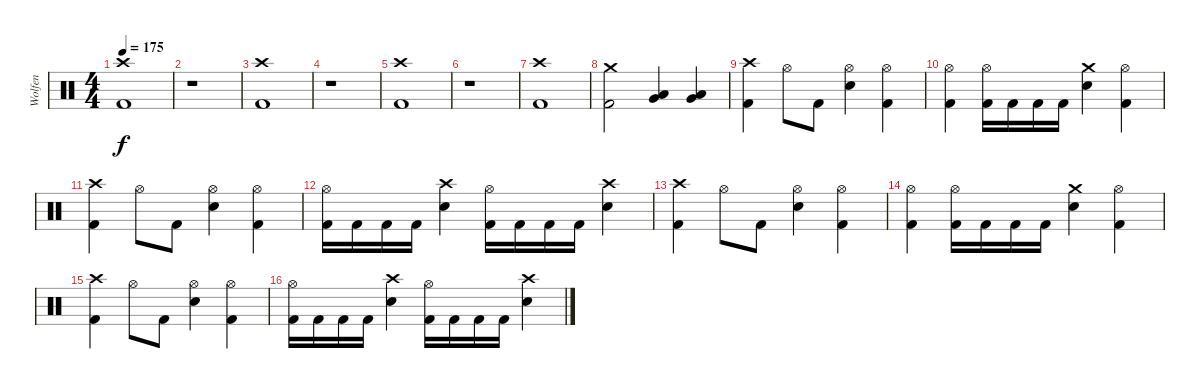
\track ("Wolfen" "Wolfen") {instrument percussion}
\staff {score}
\articulation defaults
\ts (4 4)
\tempo 175
\clef neutral
\ks c
("Crash high (hit)" "Kick (hit) 2").1{dy f} |
r.1 |
("Crash high (hit)" "Kick (hit) 2").1 |
r.1 |
("Crash high (hit)" "Kick (hit) 2").1 |
r.1 |
("Crash high (hit)" "Kick (hit) 2").1 |
("Crash medium (hit)" "Kick (hit) 2").2 ("Low Tom (hit)" "Very Low Tom (hit)").4 ("Low Tom (hit)" "Very Low Tom (hit)").4 |
("Crash high (hit)" "Kick (hit) 2").4 "Hi-Hat (open)".8 "Kick (hit) 2".8 ("Hi-Hat (open)" "Electric Snare (hit)").4 ("Hi-Hat (open)" "Kick (hit) 2").4 |
("Hi-Hat (open)" "Kick (hit) 2").4 ("Hi-Hat (open)" "Kick (hit) 2").16 "Kick (hit) 2".16 "Kick (hit) 2".16 "Kick (hit) 2".16 ("Crash medium (hit)" "Electric Snare (hit)").4 ("Hi-Hat (open)" "Kick (hit) 2").4 |
("Crash high (hit)" "Kick (hit) 2").4 "Hi-Hat (open)".8 "Kick (hit) 2".8 ("Hi-Hat (open)" "Electric Snare (hit)").4 ("Hi-Hat (open)" "Kick (hit) 2").4 |
("Hi-Hat (open)" "Kick (hit) 2").16 "Kick (hit) 2".16 "Kick (hit) 2".16 "Kick (hit) 2".16 ("Crash high (hit)" "Electric Snare (hit)").4 ("Hi-Hat (open)" "Kick (hit) 2").16 "Kick (hit) 2".16 "Kick (hit) 2".16 "Kick (hit) 2".16 ("Crash high (hit)" "Electric Snare (hit)").4 |
("Crash high (hit)" "Kick (hit) 2").4 "Hi-Hat (open)".8 "Kick (hit) 2".8 ("Hi-Hat (open)" "Electric Snare (hit)").4 ("Hi-Hat (open)" "Kick (hit) 2").4 |
("Hi-Hat (open)" "Kick (hit) 2").4 ("Hi-Hat (open)" "Kick (hit) 2").16 "Kick (hit) 2".16 "Kick (hit) 2".16 "Kick (hit) 2".16 ("Crash medium (hit)" "Electric Snare (hit)").4 ("Hi-Hat (open)" "Kick (hit) 2").4 |
("Crash high (hit)" "Kick (hit) 2").4 "Hi-Hat (open)".8 "Kick (hit) 2".8 ("Hi-Hat (open)" "Electric Snare (hit)").4 ("Hi-Hat (open)" "Kick (hit) 2").4 |
("Hi-Hat (open)" "Kick (hit) 2").16 "Kick (hit) 2".16 "Kick (hit) 2".16 "Kick (hit) 2".16 ("Crash high (hit)" "Electric Snare (hit)").4 ("Hi-Hat (open)" "Kick (hit) 2").16 "Kick (hit) 2".16 "Kick (hit) 2".16 "Kick (hit) 2".16 ("Crash high (hit)" "Electric Snare (hit)").4
